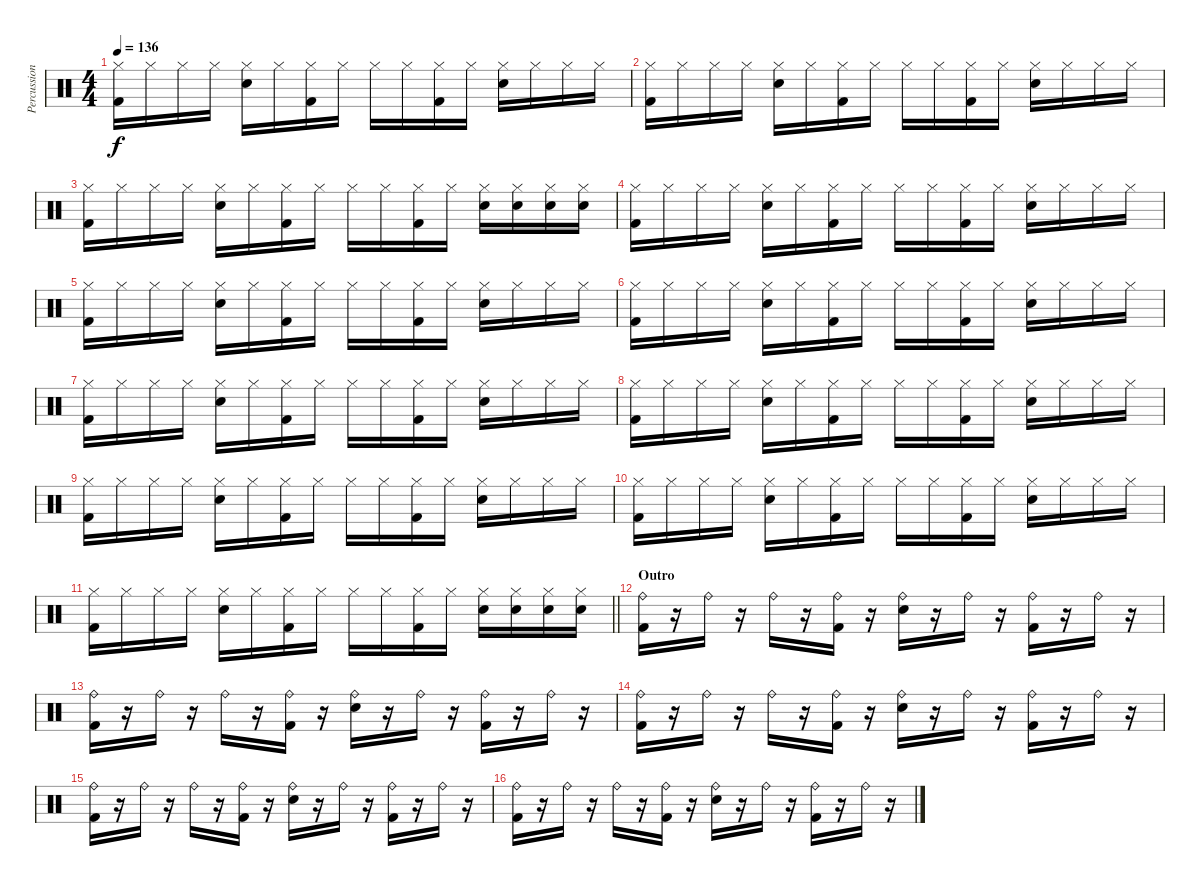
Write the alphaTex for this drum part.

\track ("Percussion" "Percussion") {instrument percussion}
\staff {score}
\articulation defaults
\ts (4 4)
\tempo 136
\clef neutral
\ks c
("Hi-Hat (closed)" "Kick (hit) 2").16{dy f} "Hi-Hat (closed)".16 "Hi-Hat (closed)".16 "Hi-Hat (closed)".16 ("Hi-Hat (closed)" "Electric Snare (hit)").16 "Hi-Hat (closed)".16 ("Hi-Hat (closed)" "Kick (hit) 2").16 "Hi-Hat (closed)".16 "Hi-Hat (closed)".16 "Hi-Hat (closed)".16 ("Hi-Hat (closed)" "Kick (hit) 2").16 "Hi-Hat (closed)".16 ("Hi-Hat (closed)" "Electric Snare (hit)").16 "Hi-Hat (closed)".16 "Hi-Hat (closed)".16 "Hi-Hat (closed)".16 |
("Hi-Hat (closed)" "Kick (hit) 2").16 "Hi-Hat (closed)".16 "Hi-Hat (closed)".16 "Hi-Hat (closed)".16 ("Hi-Hat (closed)" "Electric Snare (hit)").16 "Hi-Hat (closed)".16 ("Hi-Hat (closed)" "Kick (hit) 2").16 "Hi-Hat (closed)".16 "Hi-Hat (closed)".16 "Hi-Hat (closed)".16 ("Hi-Hat (closed)" "Kick (hit) 2").16 "Hi-Hat (closed)".16 ("Hi-Hat (closed)" "Electric Snare (hit)").16 "Hi-Hat (closed)".16 "Hi-Hat (closed)".16 "Hi-Hat (closed)".16 |
("Hi-Hat (closed)" "Kick (hit) 2").16 "Hi-Hat (closed)".16 "Hi-Hat (closed)".16 "Hi-Hat (closed)".16 ("Hi-Hat (closed)" "Electric Snare (hit)").16 "Hi-Hat (closed)".16 ("Hi-Hat (closed)" "Kick (hit) 2").16 "Hi-Hat (closed)".16 "Hi-Hat (closed)".16 "Hi-Hat (closed)".16 ("Hi-Hat (closed)" "Kick (hit) 2").16 "Hi-Hat (closed)".16 ("Hi-Hat (closed)" "Electric Snare (hit)").16 ("Hi-Hat (closed)" "Electric Snare (hit)").16 ("Hi-Hat (closed)" "Electric Snare (hit)").16 ("Hi-Hat (closed)" "Electric Snare (hit)").16 |
("Hi-Hat (closed)" "Kick (hit) 2").16 "Hi-Hat (closed)".16 "Hi-Hat (closed)".16 "Hi-Hat (closed)".16 ("Hi-Hat (closed)" "Electric Snare (hit)").16 "Hi-Hat (closed)".16 ("Hi-Hat (closed)" "Kick (hit) 2").16 "Hi-Hat (closed)".16 "Hi-Hat (closed)".16 "Hi-Hat (closed)".16 ("Hi-Hat (closed)" "Kick (hit) 2").16 "Hi-Hat (closed)".16 ("Hi-Hat (closed)" "Electric Snare (hit)").16 "Hi-Hat (closed)".16 "Hi-Hat (closed)".16 "Hi-Hat (closed)".16 |
("Hi-Hat (closed)" "Kick (hit) 2").16 "Hi-Hat (closed)".16 "Hi-Hat (closed)".16 "Hi-Hat (closed)".16 ("Hi-Hat (closed)" "Electric Snare (hit)").16 "Hi-Hat (closed)".16 ("Hi-Hat (closed)" "Kick (hit) 2").16 "Hi-Hat (closed)".16 "Hi-Hat (closed)".16 "Hi-Hat (closed)".16 ("Hi-Hat (closed)" "Kick (hit) 2").16 "Hi-Hat (closed)".16 ("Hi-Hat (closed)" "Electric Snare (hit)").16 "Hi-Hat (closed)".16 "Hi-Hat (closed)".16 "Hi-Hat (closed)".16 |
("Hi-Hat (closed)" "Kick (hit) 2").16 "Hi-Hat (closed)".16 "Hi-Hat (closed)".16 "Hi-Hat (closed)".16 ("Hi-Hat (closed)" "Electric Snare (hit)").16 "Hi-Hat (closed)".16 ("Hi-Hat (closed)" "Kick (hit) 2").16 "Hi-Hat (closed)".16 "Hi-Hat (closed)".16 "Hi-Hat (closed)".16 ("Hi-Hat (closed)" "Kick (hit) 2").16 "Hi-Hat (closed)".16 ("Hi-Hat (closed)" "Electric Snare (hit)").16 "Hi-Hat (closed)".16 "Hi-Hat (closed)".16 "Hi-Hat (closed)".16 |
("Hi-Hat (closed)" "Kick (hit) 2").16 "Hi-Hat (closed)".16 "Hi-Hat (closed)".16 "Hi-Hat (closed)".16 ("Hi-Hat (closed)" "Electric Snare (hit)").16 "Hi-Hat (closed)".16 ("Hi-Hat (closed)" "Kick (hit) 2").16 "Hi-Hat (closed)".16 "Hi-Hat (closed)".16 "Hi-Hat (closed)".16 ("Hi-Hat (closed)" "Kick (hit) 2").16 "Hi-Hat (closed)".16 ("Hi-Hat (closed)" "Electric Snare (hit)").16 "Hi-Hat (closed)".16 "Hi-Hat (closed)".16 "Hi-Hat (closed)".16 |
("Hi-Hat (closed)" "Kick (hit) 2").16 "Hi-Hat (closed)".16 "Hi-Hat (closed)".16 "Hi-Hat (closed)".16 ("Hi-Hat (closed)" "Electric Snare (hit)").16 "Hi-Hat (closed)".16 ("Hi-Hat (closed)" "Kick (hit) 2").16 "Hi-Hat (closed)".16 "Hi-Hat (closed)".16 "Hi-Hat (closed)".16 ("Hi-Hat (closed)" "Kick (hit) 2").16 "Hi-Hat (closed)".16 ("Hi-Hat (closed)" "Electric Snare (hit)").16 "Hi-Hat (closed)".16 "Hi-Hat (closed)".16 "Hi-Hat (closed)".16 |
("Hi-Hat (closed)" "Kick (hit) 2").16 "Hi-Hat (closed)".16 "Hi-Hat (closed)".16 "Hi-Hat (closed)".16 ("Hi-Hat (closed)" "Electric Snare (hit)").16 "Hi-Hat (closed)".16 ("Hi-Hat (closed)" "Kick (hit) 2").16 "Hi-Hat (closed)".16 "Hi-Hat (closed)".16 "Hi-Hat (closed)".16 ("Hi-Hat (closed)" "Kick (hit) 2").16 "Hi-Hat (closed)".16 ("Hi-Hat (closed)" "Electric Snare (hit)").16 "Hi-Hat (closed)".16 "Hi-Hat (closed)".16 "Hi-Hat (closed)".16 |
("Hi-Hat (closed)" "Kick (hit) 2").16 "Hi-Hat (closed)".16 "Hi-Hat (closed)".16 "Hi-Hat (closed)".16 ("Hi-Hat (closed)" "Electric Snare (hit)").16 "Hi-Hat (closed)".16 ("Hi-Hat (closed)" "Kick (hit) 2").16 "Hi-Hat (closed)".16 "Hi-Hat (closed)".16 "Hi-Hat (closed)".16 ("Hi-Hat (closed)" "Kick (hit) 2").16 "Hi-Hat (closed)".16 ("Hi-Hat (closed)" "Electric Snare (hit)").16 "Hi-Hat (closed)".16 "Hi-Hat (closed)".16 "Hi-Hat (closed)".16 |
\barLineRight lightlight
("Hi-Hat (closed)" "Kick (hit) 2").16 "Hi-Hat (closed)".16 "Hi-Hat (closed)".16 "Hi-Hat (closed)".16 ("Hi-Hat (closed)" "Electric Snare (hit)").16 "Hi-Hat (closed)".16 ("Hi-Hat (closed)" "Kick (hit) 2").16 "Hi-Hat (closed)".16 "Hi-Hat (closed)".16 "Hi-Hat (closed)".16 ("Hi-Hat (closed)" "Kick (hit) 2").16 "Hi-Hat (closed)".16 ("Hi-Hat (closed)" "Electric Snare (hit)").16 ("Hi-Hat (closed)" "Electric Snare (hit)").16 ("Hi-Hat (closed)" "Electric Snare (hit)").16 ("Hi-Hat (closed)" "Electric Snare (hit)").16 |
\section ("" "Outro")
("Ride (bell)" "Kick (hit) 2").16 r.16 "Ride (bell)".16 r.16 "Ride (bell)".16 r.16 ("Ride (bell)" "Kick (hit) 2").16 r.16 ("Ride (bell)" "Electric Snare (hit)").16 r.16 "Ride (bell)".16 r.16 ("Ride (bell)" "Kick (hit) 2").16 r.16 "Ride (bell)".16 r.16 |
("Ride (bell)" "Kick (hit) 2").16 r.16 "Ride (bell)".16 r.16 "Ride (bell)".16 r.16 ("Ride (bell)" "Kick (hit) 2").16 r.16 ("Ride (bell)" "Electric Snare (hit)").16 r.16 "Ride (bell)".16 r.16 ("Ride (bell)" "Kick (hit) 2").16 r.16 "Ride (bell)".16 r.16 |
("Ride (bell)" "Kick (hit) 2").16 r.16 "Ride (bell)".16 r.16 "Ride (bell)".16 r.16 ("Ride (bell)" "Kick (hit) 2").16 r.16 ("Ride (bell)" "Electric Snare (hit)").16 r.16 "Ride (bell)".16 r.16 ("Ride (bell)" "Kick (hit) 2").16 r.16 "Ride (bell)".16 r.16 |
("Ride (bell)" "Kick (hit) 2").16 r.16 "Ride (bell)".16 r.16 "Ride (bell)".16 r.16 ("Ride (bell)" "Kick (hit) 2").16 r.16 ("Ride (bell)" "Electric Snare (hit)").16 r.16 "Ride (bell)".16 r.16 ("Ride (bell)" "Kick (hit) 2").16 r.16 "Ride (bell)".16 r.16 |
("Ride (bell)" "Kick (hit) 2").16 r.16 "Ride (bell)".16 r.16 "Ride (bell)".16 r.16 ("Ride (bell)" "Kick (hit) 2").16 r.16 ("Ride (bell)" "Electric Snare (hit)").16 r.16 "Ride (bell)".16 r.16 ("Ride (bell)" "Kick (hit) 2").16 r.16 "Ride (bell)".16 r.16
